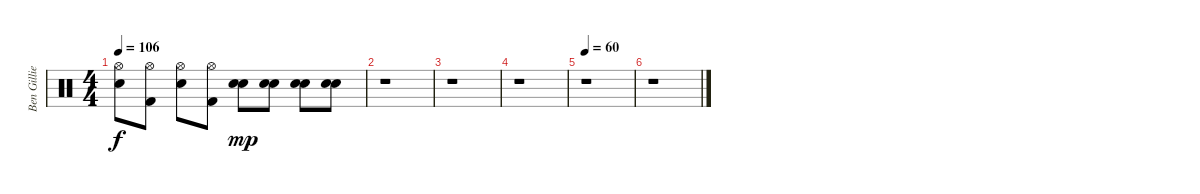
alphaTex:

\track ("Ben Gillies" "Ben Gillie") {instrument percussion}
\staff {score}
\articulation defaults
\ts (4 4)
\tempo 106
\clef neutral
\ks c
("Hi-Hat (open)" "Electric Snare (hit)").8{dy f} ("Hi-Hat (open)" "Kick (hit) 2").8 ("Hi-Hat (open)" "Electric Snare (hit)").8 ("Hi-Hat (open)" "Kick (hit) 2").8 ("Electric Snare (hit)" "Electric Snare (hit)").8{dy mp} ("Electric Snare (hit)" "Electric Snare (hit)").8 ("Electric Snare (hit)" "Electric Snare (hit)").8 ("Electric Snare (hit)" "Electric Snare (hit)").8 |
r.1 |
r.1 |
r.1 |
\tempo 60
r.1 |
r.1
